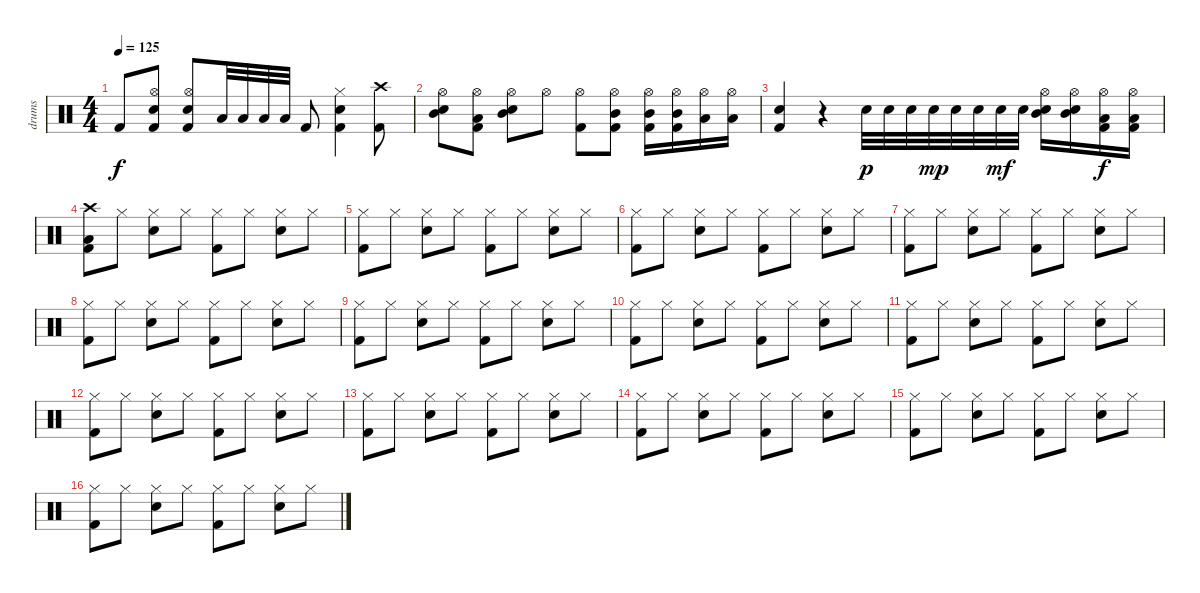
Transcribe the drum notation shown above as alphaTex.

\track ("drums" "drums") {instrument percussion}
\staff {score}
\articulation defaults
\ts (4 4)
\tempo 125
\clef neutral
\ks c "Kick (hit) 2".8{dy f}
("Hi-Hat (open)" "Snare (hit) 2" "Kick (hit) 2").8 ("Hi-Hat (open)" "Snare (hit) 2" "Kick (hit) 2").8 "Low Tom (hit)".32 "Low Tom (hit)".32 "Low Tom (hit)".32 "Low Tom (hit)".32 "Kick (hit) 2".8 ("Hi-Hat (closed)" "Snare (hit) 2" "Kick (hit) 2").4 ("Crash high (hit)" "Kick (hit) 2").8 |
("Hi-Hat (open)" "Snare (hit) 2" "Mid Tom (hit)").8 ("Hi-Hat (open)" "Low Floor Tom (hit)" "Kick (hit) 2").8 ("Hi-Hat (open)" "Snare (hit) 2" "Mid Tom (hit)").8 "Hi-Hat (open)".8 ("Hi-Hat (open)" "Kick (hit) 2").8 ("Hi-Hat (open)" "Mid Tom (hit)" "Kick (hit) 2").8 ("Hi-Hat (open)" "Mid Tom (hit)" "Kick (hit) 2").16 ("Hi-Hat (open)" "Mid Tom (hit)" "Kick (hit) 2").16 ("Hi-Hat (open)" "Low Tom (hit)").16 ("Hi-Hat (open)" "Low Tom (hit)").16 |
("Snare (hit) 2" "Kick (hit) 2").4 r.4 "Snare (hit) 2".32{dy p} "Snare (hit) 2".32 "Snare (hit) 2".32 "Snare (hit) 2".32{dy mp} "Snare (hit) 2".32 "Snare (hit) 2".32 "Snare (hit) 2".32{dy mf} "Snare (hit) 2".32 ("Hi-Hat (open)" "Mid Tom (hit)" "Snare (hit) 2").16 ("Hi-Hat (open)" "Mid Tom (hit)" "Snare (hit) 2").16 ("Hi-Hat (open)" "Low Tom (hit)" "Kick (hit) 2").16{dy f} ("Hi-Hat (open)" "Low Tom (hit)" "Kick (hit) 2").16 |
("Crash high (hit)" "Low Floor Tom (hit)" "Kick (hit) 2").8 "Hi-Hat (closed)".8 ("Hi-Hat (closed)" "Snare (hit) 2").8 "Hi-Hat (closed)".8 ("Hi-Hat (closed)" "Kick (hit) 2").8 "Hi-Hat (closed)".8 ("Hi-Hat (closed)" "Snare (hit) 2").8 "Hi-Hat (closed)".8 |
("Hi-Hat (closed)" "Kick (hit) 2").8 "Hi-Hat (closed)".8 ("Hi-Hat (closed)" "Snare (hit) 2").8 "Hi-Hat (closed)".8 ("Hi-Hat (closed)" "Kick (hit) 2").8 "Hi-Hat (closed)".8 ("Hi-Hat (closed)" "Snare (hit) 2").8 "Hi-Hat (closed)".8 |
("Hi-Hat (closed)" "Kick (hit) 2").8 "Hi-Hat (closed)".8 ("Hi-Hat (closed)" "Snare (hit) 2").8 "Hi-Hat (closed)".8 ("Hi-Hat (closed)" "Kick (hit) 2").8 "Hi-Hat (closed)".8 ("Hi-Hat (closed)" "Snare (hit) 2").8 "Hi-Hat (closed)".8 |
("Hi-Hat (closed)" "Kick (hit) 2").8 "Hi-Hat (closed)".8 ("Hi-Hat (closed)" "Snare (hit) 2").8 "Hi-Hat (closed)".8 ("Hi-Hat (closed)" "Kick (hit) 2").8 "Hi-Hat (closed)".8 ("Hi-Hat (closed)" "Snare (hit) 2").8 "Hi-Hat (closed)".8 |
("Hi-Hat (closed)" "Kick (hit) 2").8 "Hi-Hat (closed)".8 ("Hi-Hat (closed)" "Snare (hit) 2").8 "Hi-Hat (closed)".8 ("Hi-Hat (closed)" "Kick (hit) 2").8 "Hi-Hat (closed)".8 ("Hi-Hat (closed)" "Snare (hit) 2").8 "Hi-Hat (closed)".8 |
("Hi-Hat (closed)" "Kick (hit) 2").8 "Hi-Hat (closed)".8 ("Hi-Hat (closed)" "Snare (hit) 2").8 "Hi-Hat (closed)".8 ("Hi-Hat (closed)" "Kick (hit) 2").8 "Hi-Hat (closed)".8 ("Hi-Hat (closed)" "Snare (hit) 2").8 "Hi-Hat (closed)".8 |
("Hi-Hat (closed)" "Kick (hit) 2").8 "Hi-Hat (closed)".8 ("Hi-Hat (closed)" "Snare (hit) 2").8 "Hi-Hat (closed)".8 ("Hi-Hat (closed)" "Kick (hit) 2").8 "Hi-Hat (closed)".8 ("Hi-Hat (closed)" "Snare (hit) 2").8 "Hi-Hat (closed)".8 |
("Hi-Hat (closed)" "Kick (hit) 2").8 "Hi-Hat (closed)".8 ("Hi-Hat (closed)" "Snare (hit) 2").8 "Hi-Hat (closed)".8 ("Hi-Hat (closed)" "Kick (hit) 2").8 "Hi-Hat (closed)".8 ("Hi-Hat (closed)" "Snare (hit) 2").8 "Hi-Hat (closed)".8 |
("Hi-Hat (closed)" "Kick (hit) 2").8 "Hi-Hat (closed)".8 ("Hi-Hat (closed)" "Snare (hit) 2").8 "Hi-Hat (closed)".8 ("Hi-Hat (closed)" "Kick (hit) 2").8 "Hi-Hat (closed)".8 ("Hi-Hat (closed)" "Snare (hit) 2").8 "Hi-Hat (closed)".8 |
("Hi-Hat (closed)" "Kick (hit) 2").8 "Hi-Hat (closed)".8 ("Hi-Hat (closed)" "Snare (hit) 2").8 "Hi-Hat (closed)".8 ("Hi-Hat (closed)" "Kick (hit) 2").8 "Hi-Hat (closed)".8 ("Hi-Hat (closed)" "Snare (hit) 2").8 "Hi-Hat (closed)".8 |
("Hi-Hat (closed)" "Kick (hit) 2").8 "Hi-Hat (closed)".8 ("Hi-Hat (closed)" "Snare (hit) 2").8 "Hi-Hat (closed)".8 ("Hi-Hat (closed)" "Kick (hit) 2").8 "Hi-Hat (closed)".8 ("Hi-Hat (closed)" "Snare (hit) 2").8 "Hi-Hat (closed)".8 |
("Hi-Hat (closed)" "Kick (hit) 2").8 "Hi-Hat (closed)".8 ("Hi-Hat (closed)" "Snare (hit) 2").8 "Hi-Hat (closed)".8 ("Hi-Hat (closed)" "Kick (hit) 2").8 "Hi-Hat (closed)".8 ("Hi-Hat (closed)" "Snare (hit) 2").8 "Hi-Hat (closed)".8 |
("Hi-Hat (closed)" "Kick (hit) 2").8 "Hi-Hat (closed)".8 ("Hi-Hat (closed)" "Snare (hit) 2").8 "Hi-Hat (closed)".8 ("Hi-Hat (closed)" "Kick (hit) 2").8 "Hi-Hat (closed)".8 ("Hi-Hat (closed)" "Snare (hit) 2").8 "Hi-Hat (closed)".8
